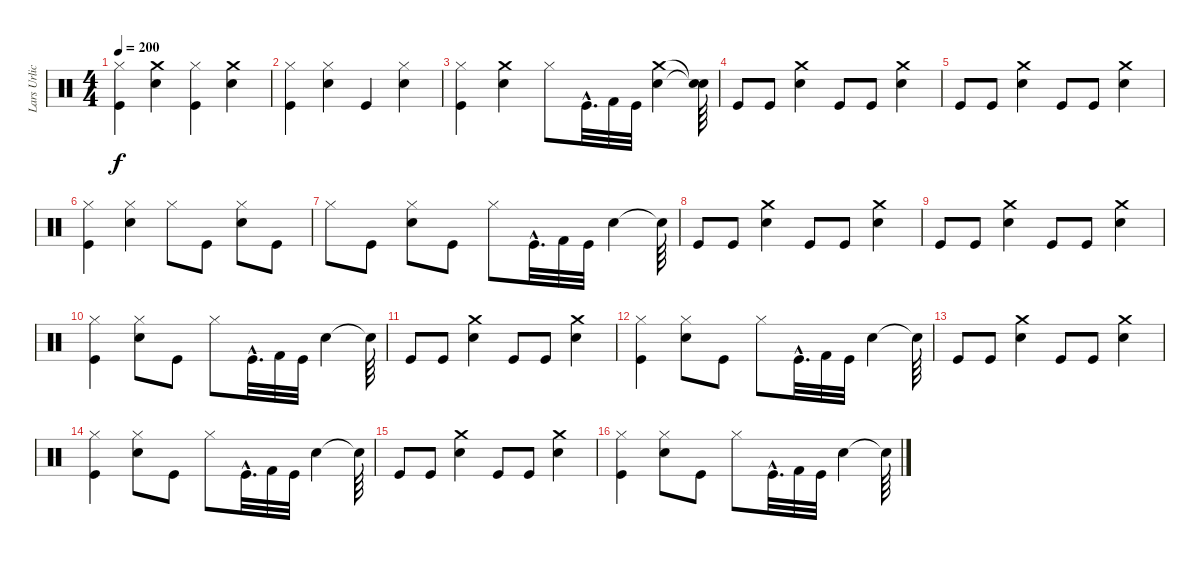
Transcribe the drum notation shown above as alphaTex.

\track ("Lars Urlich" "Lars Urlic") {instrument percussion}
\staff {score}
\articulation defaults
\ts (4 4)
\tempo 200
\clef neutral
\ks c
("Hi-Hat (closed)" "Kick (hit)").4{dy f} ("Crash medium (hit)" "Snare (hit) 2").4 ("Hi-Hat (closed)" "Kick (hit)").4 ("Crash medium (hit)" "Snare (hit) 2").4 |
("Hi-Hat (closed)" "Kick (hit)").4 ("Hi-Hat (closed)" "Snare (hit) 2").4 "Kick (hit)".4 ("Snare (hit) 2" "Hi-Hat (closed)").4 |
("Hi-Hat (closed)" "Kick (hit)").4 ("Crash medium (hit)" "Snare (hit) 2").4 "Hi-Hat (closed)".8 "Kick (hit)"{hac}.32{d} "Kick (hit) 2".32 "Kick (hit)".32 ("Crash medium (hit)" "Snare (hit) 2").4 ("Snare (hit)"{t} "Snare (hit)"{t}).64 |
"Kick (hit)".8 "Kick (hit)".8 ("Snare (hit) 2" "Crash medium (hit)").4 "Kick (hit)".8 "Kick (hit)".8 ("Snare (hit) 2" "Crash medium (hit)").4 |
"Kick (hit)".8 "Kick (hit)".8 ("Snare (hit) 2" "Crash medium (hit)").4 "Kick (hit)".8 "Kick (hit)".8 ("Snare (hit) 2" "Crash medium (hit)").4 |
("Kick (hit)" "Hi-Hat (closed)").4 ("Hi-Hat (closed)" "Snare (hit) 2").4 "Hi-Hat (closed)".8 "Kick (hit)".8 ("Snare (hit) 2" "Hi-Hat (closed)").8 "Kick (hit)".8 |
"Hi-Hat (closed)".8 "Kick (hit)".8 ("Snare (hit) 2" "Hi-Hat (closed)").8 "Kick (hit)".8 "Hi-Hat (closed)".8 "Kick (hit)"{hac}.32{d} "Kick (hit) 2".32 "Kick (hit)".32 "Snare (hit) 2".4 "Snare (hit)"{t}.64 |
"Kick (hit)".8 "Kick (hit)".8 ("Snare (hit) 2" "Crash medium (hit)").4 "Kick (hit)".8 "Kick (hit)".8 ("Snare (hit) 2" "Crash medium (hit)").4 |
"Kick (hit)".8 "Kick (hit)".8 ("Snare (hit) 2" "Crash medium (hit)").4 "Kick (hit)".8 "Kick (hit)".8 ("Snare (hit) 2" "Crash medium (hit)").4 |
("Kick (hit)" "Hi-Hat (closed)").4 ("Snare (hit) 2" "Hi-Hat (closed)").8 "Kick (hit)".8 "Hi-Hat (closed)".8 "Kick (hit)"{hac}.32{d} "Kick (hit) 2".32 "Kick (hit)".32 "Snare (hit) 2".4 "Snare (hit)"{t}.64 |
"Kick (hit)".8 "Kick (hit)".8 ("Snare (hit) 2" "Crash medium (hit)").4 "Kick (hit)".8 "Kick (hit)".8 ("Snare (hit) 2" "Crash medium (hit)").4 |
("Kick (hit)" "Hi-Hat (closed)").4 ("Snare (hit) 2" "Hi-Hat (closed)").8 "Kick (hit)".8 "Hi-Hat (closed)".8 "Kick (hit)"{hac}.32{d} "Kick (hit) 2".32 "Kick (hit)".32 "Snare (hit) 2".4 "Snare (hit)"{t}.64 |
"Kick (hit)".8 "Kick (hit)".8 ("Snare (hit) 2" "Crash medium (hit)").4 "Kick (hit)".8 "Kick (hit)".8 ("Snare (hit) 2" "Crash medium (hit)").4 |
("Kick (hit)" "Hi-Hat (closed)").4 ("Snare (hit) 2" "Hi-Hat (closed)").8 "Kick (hit)".8 "Hi-Hat (closed)".8 "Kick (hit)"{hac}.32{d} "Kick (hit) 2".32 "Kick (hit)".32 "Snare (hit) 2".4 "Snare (hit)"{t}.64 |
"Kick (hit)".8 "Kick (hit)".8 ("Snare (hit) 2" "Crash medium (hit)").4 "Kick (hit)".8 "Kick (hit)".8 ("Snare (hit) 2" "Crash medium (hit)").4 |
("Kick (hit)" "Hi-Hat (closed)").4 ("Snare (hit) 2" "Hi-Hat (closed)").8 "Kick (hit)".8 "Hi-Hat (closed)".8 "Kick (hit)"{hac}.32{d} "Kick (hit) 2".32 "Kick (hit)".32 "Snare (hit) 2".4 "Snare (hit)"{t}.64
